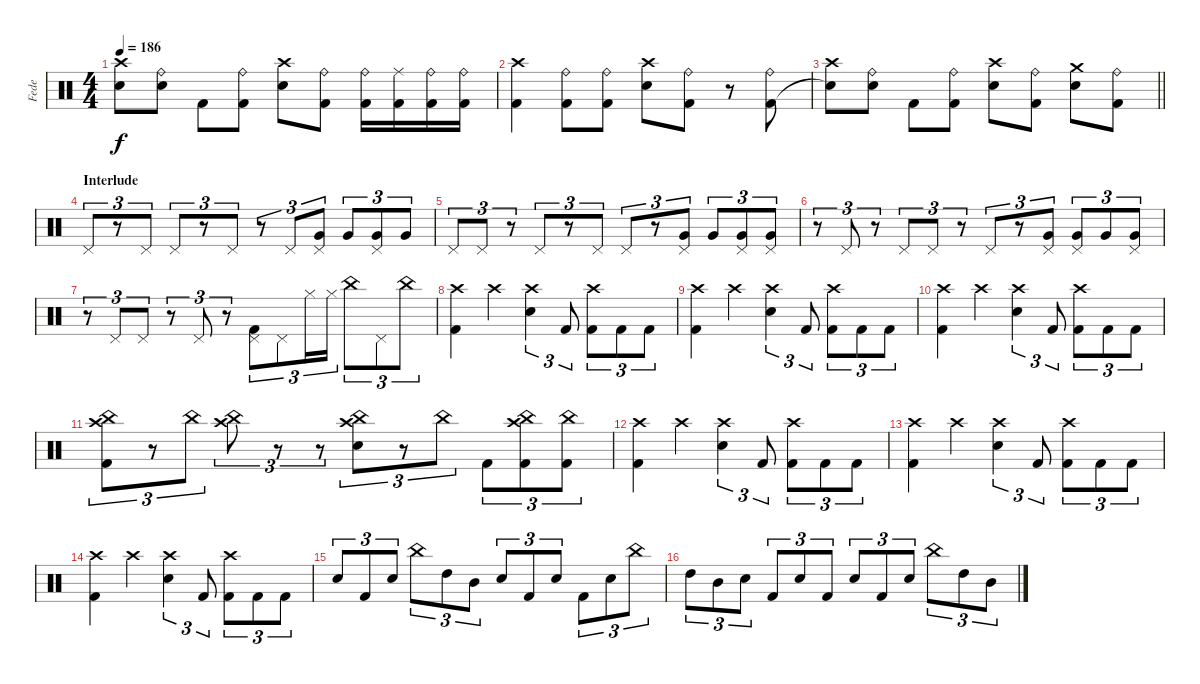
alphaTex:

\track ("Fede" "Fede") {instrument percussion}
\staff {score}
\articulation defaults
\ts (4 4)
\tempo 186
\clef neutral
\ks c
("Crash high (hit)" "Snare (hit)"{t}).8{dy f} ("Ride (bell)" "Snare (hit) 2").8 "Kick (hit) 2".8 ("Ride (bell)" "Kick (hit) 2").8 ("Crash high (hit)" "Snare (hit) 2").8 ("Ride (bell)" "Kick (hit) 2").8 ("Ride (bell)" "Kick (hit) 2").16 ("Ride (middle)" "Kick (hit) 2").16 ("Ride (bell)" "Kick (hit) 2").16 ("Ride (bell)" "Kick (hit) 2").16 |
("Crash high (hit)" "Kick (hit) 2").4 ("Ride (bell)" "Kick (hit) 2").8 ("Ride (bell)" "Kick (hit) 2").8 ("Crash high (hit)" "Snare (hit) 2").8 ("Ride (bell)" "Kick (hit) 2").8 r.8 ("Ride (bell)" "Kick (hit) 2").8 |
\barLineRight lightlight
("Crash high (hit)" "Snare (hit)"{t}).8 ("Ride (bell)" "Snare (hit) 2").8 "Kick (hit) 2".8 ("Ride (bell)" "Kick (hit) 2").8 ("Crash high (hit)" "Snare (hit) 2").8 ("Ride (bell)" "Kick (hit) 2").8 ("Crash medium (hit)" "Snare (hit) 2").8 ("Ride (bell)" "Kick (hit) 2").8 |
\section ("" "Interlude")
"Pedal Hi-Hat (hit)".8{tu (3 2)} r.8{tu (3 2)} "Pedal Hi-Hat (hit)".8{tu (3 2)} "Pedal Hi-Hat (hit)".8{tu (3 2)} r.8{tu (3 2)} "Pedal Hi-Hat (hit)".8{tu (3 2)} r.8{tu (3 2)} "Pedal Hi-Hat (hit)".8{tu (3 2)} ("Pedal Hi-Hat (hit)" "Very Low Tom (hit)").8{tu (3 2)} "Very Low Tom (hit)".8{tu (3 2)} ("Pedal Hi-Hat (hit)" "Very Low Tom (hit)").8{tu (3 2)} "Very Low Tom (hit)".8{tu (3 2)} |
"Pedal Hi-Hat (hit)".8{tu (3 2)} "Pedal Hi-Hat (hit)".8{tu (3 2)} r.8{tu (3 2)} "Pedal Hi-Hat (hit)".8{tu (3 2)} r.8{tu (3 2)} "Pedal Hi-Hat (hit)".8{tu (3 2)} "Pedal Hi-Hat (hit)".8{tu (3 2)} r.8{tu (3 2)} ("Pedal Hi-Hat (hit)" "Very Low Tom (hit)").8{tu (3 2)} "Very Low Tom (hit)".8{tu (3 2)} ("Pedal Hi-Hat (hit)" "Very Low Tom (hit)").8{tu (3 2)} ("Pedal Hi-Hat (hit)" "Very Low Tom (hit)").8{tu (3 2)} |
r.8{tu (3 2)} "Pedal Hi-Hat (hit)".8{tu (3 2)} r.8{tu (3 2)} "Pedal Hi-Hat (hit)".8{tu (3 2)} "Pedal Hi-Hat (hit)".8{tu (3 2)} r.8{tu (3 2)} "Pedal Hi-Hat (hit)".8{tu (3 2)} r.8{tu (3 2)} ("Pedal Hi-Hat (hit)" "Very Low Tom (hit)").8{tu (3 2)} ("Pedal Hi-Hat (hit)" "Very Low Tom (hit)").8{tu (3 2)} "Very Low Tom (hit)".8{tu (3 2)} ("Pedal Hi-Hat (hit)" "Very Low Tom (hit)").8{tu (3 2)} |
r.8{tu (3 2)} "Pedal Hi-Hat (hit)".8{tu (3 2)} "Pedal Hi-Hat (hit)".8{tu (3 2)} r.8{tu (3 2)} "Pedal Hi-Hat (hit)".8{tu (3 2)} r.8{tu (3 2)} ("Pedal Hi-Hat (hit)" "Kick (hit) 2").8{tu (3 2)} "Pedal Hi-Hat (hit)".8{tu (3 2)} "Hi-Hat (closed)".16{tu (3 2)} "Hi-Hat (closed)".16{tu (3 2)} "China (hit)".8{tu (3 2)} "Pedal Hi-Hat (hit)".8{tu (3 2)} "China (hit)".8{tu (3 2)} |
("Crash high (hit)" "Kick (hit) 2").4 "Crash high (hit)".4 ("Crash high (hit)" "Snare (hit) 2").4{tu (3 2)} "Kick (hit) 2".8{tu (3 2)} ("Crash high (hit)" "Kick (hit) 2").8{tu (3 2)} "Kick (hit) 2".8{tu (3 2)} "Kick (hit) 2".8{tu (3 2)} |
("Crash high (hit)" "Kick (hit) 2").4 "Crash high (hit)".4 ("Crash high (hit)" "Snare (hit) 2").4{tu (3 2)} "Kick (hit) 2".8{tu (3 2)} ("Crash high (hit)" "Kick (hit) 2").8{tu (3 2)} "Kick (hit) 2".8{tu (3 2)} "Kick (hit) 2".8{tu (3 2)} |
("Crash high (hit)" "Kick (hit) 2").4 "Crash high (hit)".4 ("Crash high (hit)" "Snare (hit) 2").4{tu (3 2)} "Kick (hit) 2".8{tu (3 2)} ("Crash high (hit)" "Kick (hit) 2").8{tu (3 2)} "Kick (hit) 2".8{tu (3 2)} "Kick (hit) 2".8{tu (3 2)} |
("Crash high (hit)" "China (hit)" "Kick (hit) 2").8{tu (3 2)} r.8{tu (3 2)} "China (hit)".8{tu (3 2)} ("Crash high (hit)" "China (hit)").8{tu (3 2)} r.8{tu (3 2)} r.8{tu (3 2)} ("Crash high (hit)" "Snare (hit) 2" "China (hit)").8{tu (3 2)} r.8{tu (3 2)} "China (hit)".8{tu (3 2)} "Kick (hit) 2".8{tu (3 2)} ("Crash high (hit)" "China (hit)" "Kick (hit) 2").8{tu (3 2)} ("China (hit)" "Kick (hit) 2").8{tu (3 2)} |
("Crash high (hit)" "Kick (hit) 2").4 "Crash high (hit)".4 ("Crash high (hit)" "Snare (hit) 2").4{tu (3 2)} "Kick (hit) 2".8{tu (3 2)} ("Crash high (hit)" "Kick (hit) 2").8{tu (3 2)} "Kick (hit) 2".8{tu (3 2)} "Kick (hit) 2".8{tu (3 2)} |
("Crash high (hit)" "Kick (hit) 2").4 "Crash high (hit)".4 ("Crash high (hit)" "Snare (hit) 2").4{tu (3 2)} "Kick (hit) 2".8{tu (3 2)} ("Crash high (hit)" "Kick (hit) 2").8{tu (3 2)} "Kick (hit) 2".8{tu (3 2)} "Kick (hit) 2".8{tu (3 2)} |
("Crash high (hit)" "Kick (hit) 2").4 "Crash high (hit)".4 ("Crash high (hit)" "Snare (hit) 2").4{tu (3 2)} "Kick (hit) 2".8{tu (3 2)} ("Crash high (hit)" "Kick (hit) 2").8{tu (3 2)} "Kick (hit) 2".8{tu (3 2)} "Kick (hit) 2".8{tu (3 2)} |
"Snare (hit) 2".8{tu (3 2)} "Kick (hit) 2".8{tu (3 2)} "Snare (hit) 2".8{tu (3 2)} "China (hit)".8{tu (3 2)} "High Tom (hit)".8{tu (3 2)} "Mid Tom (hit)".8{tu (3 2)} "Snare (hit) 2".8{tu (3 2)} "Kick (hit) 2".8{tu (3 2)} "Snare (hit) 2".8{tu (3 2)} "Kick (hit) 2".8{tu (3 2)} "Snare (hit) 2".8{tu (3 2)} "China (hit)".8{tu (3 2)} |
"High Tom (hit)".8{tu (3 2)} "Mid Tom (hit)".8{tu (3 2)} "Snare (hit) 2".8{tu (3 2)} "Kick (hit) 2".8{tu (3 2)} "Snare (hit) 2".8{tu (3 2)} "Kick (hit) 2".8{tu (3 2)} "Snare (hit) 2".8{tu (3 2)} "Kick (hit) 2".8{tu (3 2)} "Snare (hit) 2".8{tu (3 2)} "China (hit)".8{tu (3 2)} "High Tom (hit)".8{tu (3 2)} "Mid Tom (hit)".8{tu (3 2)}
